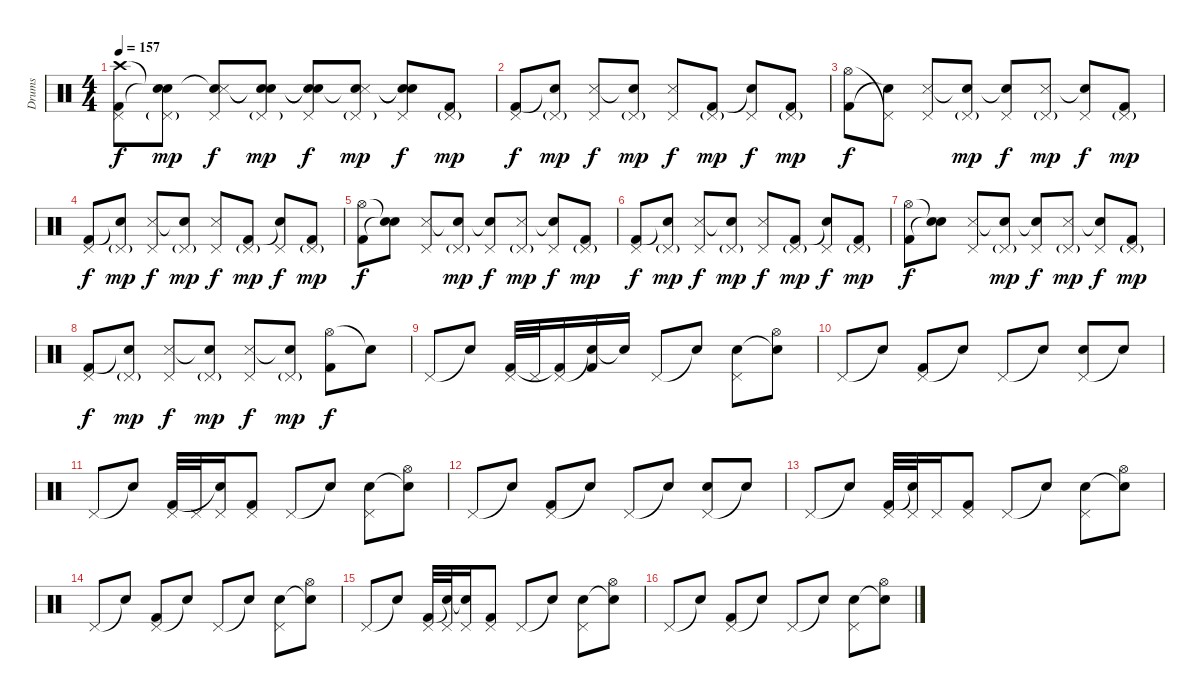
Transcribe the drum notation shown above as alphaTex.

\track ("Drums" "Drums") {instrument percussion}
\staff {score}
\articulation defaults
\ts (4 4)
\tempo 157
\clef neutral
\ks c
("Crash high (hit)" "Pedal Hi-Hat (hit)" "Kick (hit) 2").8{dy f} ("Snare (hit)"{t} "Pedal Hi-Hat (hit)"{g} "Snare (hit)"{t}).8{dy mp} ("Snare (hit)"{t} "Pedal Hi-Hat (hit)" "Snare (side stick) 3").8{dy f} ("Snare (hit)"{t} "Pedal Hi-Hat (hit)"{g} "Snare (hit)"{t}).8{dy mp} ("Snare (hit)"{t} "Pedal Hi-Hat (hit)" "Snare (hit)"{t}).8{dy f} ("Snare (hit)"{t} "Pedal Hi-Hat (hit)"{g} "Snare (side stick) 3").8{dy mp} ("Snare (hit)"{t} "Pedal Hi-Hat (hit)" "Snare (hit)"{t}).8{dy f} ("Pedal Hi-Hat (hit)"{g} "Kick (hit) 2").8{dy mp} |
("Pedal Hi-Hat (hit)" "Kick (hit) 2").8{dy f} ("Pedal Hi-Hat (hit)"{g} "Snare (hit)"{t}).8{dy mp} ("Pedal Hi-Hat (hit)" "Snare (side stick) 3").8{dy f} ("Pedal Hi-Hat (hit)"{g} "Snare (hit)"{t}).8{dy mp} ("Pedal Hi-Hat (hit)" "Snare (side stick) 3").8{dy f} ("Pedal Hi-Hat (hit)"{g} "Kick (hit) 2").8{dy mp} ("Pedal Hi-Hat (hit)" "Snare (hit)"{t}).8{dy f} ("Pedal Hi-Hat (hit)"{g} "Kick (hit) 2").8{dy mp} |
("Hi-Hat (open)" "Kick (hit) 2").8{dy f} ("Pedal Hi-Hat (hit)"{t} "Snare (hit)"{t}).8 ("Pedal Hi-Hat (hit)" "Snare (side stick) 3").8 ("Pedal Hi-Hat (hit)"{g} "Snare (hit)"{t}).8{dy mp} ("Pedal Hi-Hat (hit)" "Snare (hit)"{t}).8{dy f} ("Pedal Hi-Hat (hit)"{g} "Snare (side stick) 3").8{dy mp} ("Pedal Hi-Hat (hit)" "Snare (hit)"{t}).8{dy f} ("Pedal Hi-Hat (hit)"{g} "Kick (hit) 2").8{dy mp} |
("Pedal Hi-Hat (hit)" "Kick (hit) 2").8{dy f} ("Pedal Hi-Hat (hit)"{g} "Snare (hit)"{t}).8{dy mp} ("Pedal Hi-Hat (hit)" "Snare (side stick) 3").8{dy f} ("Pedal Hi-Hat (hit)"{g} "Snare (hit)"{t}).8{dy mp} ("Pedal Hi-Hat (hit)" "Snare (side stick) 3").8{dy f} ("Pedal Hi-Hat (hit)"{g} "Kick (hit) 2").8{dy mp} ("Pedal Hi-Hat (hit)" "Snare (hit)"{t}).8{dy f} ("Pedal Hi-Hat (hit)"{g} "Kick (hit) 2").8{dy mp} |
("Hi-Hat (open)" "Kick (hit) 2").8{dy f} ("Snare (hit)"{t} "Snare (hit)"{t}).8 ("Pedal Hi-Hat (hit)" "Snare (side stick) 3").8 ("Pedal Hi-Hat (hit)"{g} "Snare (hit)"{t}).8{dy mp} ("Pedal Hi-Hat (hit)" "Snare (hit)"{t}).8{dy f} ("Pedal Hi-Hat (hit)"{g} "Snare (side stick) 3").8{dy mp} ("Pedal Hi-Hat (hit)" "Snare (hit)"{t}).8{dy f} ("Pedal Hi-Hat (hit)"{g} "Kick (hit) 2").8{dy mp} |
("Pedal Hi-Hat (hit)" "Kick (hit) 2").8{dy f} ("Pedal Hi-Hat (hit)"{g} "Snare (hit)"{t}).8{dy mp} ("Pedal Hi-Hat (hit)" "Snare (side stick) 3").8{dy f} ("Pedal Hi-Hat (hit)"{g} "Snare (hit)"{t}).8{dy mp} ("Pedal Hi-Hat (hit)" "Snare (side stick) 3").8{dy f} ("Pedal Hi-Hat (hit)"{g} "Kick (hit) 2").8{dy mp} ("Pedal Hi-Hat (hit)" "Snare (hit)"{t}).8{dy f} ("Pedal Hi-Hat (hit)"{g} "Kick (hit) 2").8{dy mp} |
("Hi-Hat (open)" "Kick (hit) 2").8{dy f} ("Snare (hit)"{t} "Snare (hit)"{t}).8 ("Pedal Hi-Hat (hit)" "Snare (side stick) 3").8 ("Pedal Hi-Hat (hit)"{g} "Snare (hit)"{t}).8{dy mp} ("Pedal Hi-Hat (hit)" "Snare (hit)"{t}).8{dy f} ("Pedal Hi-Hat (hit)"{g} "Snare (side stick) 3").8{dy mp} ("Pedal Hi-Hat (hit)" "Snare (hit)"{t}).8{dy f} ("Pedal Hi-Hat (hit)"{g} "Kick (hit) 2").8{dy mp} |
("Pedal Hi-Hat (hit)" "Kick (hit) 2").8{dy f} ("Pedal Hi-Hat (hit)"{g} "Snare (hit)"{t}).8{dy mp} ("Pedal Hi-Hat (hit)" "Snare (side stick) 3").8{dy f} ("Pedal Hi-Hat (hit)"{g} "Snare (hit)"{t}).8{dy mp} ("Pedal Hi-Hat (hit)" "Snare (side stick) 3").8{dy f} ("Pedal Hi-Hat (hit)"{g} "Snare (hit)"{t}).8{dy mp} ("Hi-Hat (open)" "Kick (hit) 2").8{dy f} "Snare (hit)"{t}.8 |
"Pedal Hi-Hat (hit)".8 "Snare (hit)"{t}.8 ("Pedal Hi-Hat (hit)" "Kick (hit) 2").32 "Pedal Hi-Hat (hit)".32 ("Pedal Hi-Hat (hit)" "Kick (hit) 2"{t}).16 ("Snare (hit)"{t} "Kick (hit) 2").16 "Snare (hit)"{t}.16 "Pedal Hi-Hat (hit)".8 "Snare (hit)"{t}.8 ("Pedal Hi-Hat (hit)" "Snare (hit) 2").8 ("Hi-Hat (open)" "Snare (hit)"{t}).8 |
"Pedal Hi-Hat (hit)".8 "Snare (hit)"{t}.8 ("Pedal Hi-Hat (hit)" "Kick (hit) 2").8 "Snare (hit)"{t}.8 "Pedal Hi-Hat (hit)".8 "Snare (hit)"{t}.8 ("Pedal Hi-Hat (hit)" "Snare (hit) 2").8 "Snare (hit)"{t}.8 |
"Pedal Hi-Hat (hit)".8 "Snare (hit)"{t}.8 ("Pedal Hi-Hat (hit)" "Kick (hit) 2").32 "Pedal Hi-Hat (hit)".32 ("Pedal Hi-Hat (hit)" "Snare (hit)"{t}).16 ("Pedal Hi-Hat (hit)" "Kick (hit) 2").8 "Pedal Hi-Hat (hit)".8 "Snare (hit)"{t}.8 ("Pedal Hi-Hat (hit)" "Snare (hit) 2").8 ("Hi-Hat (open)" "Snare (hit)"{t}).8 |
"Pedal Hi-Hat (hit)".8 "Snare (hit)"{t}.8 ("Pedal Hi-Hat (hit)" "Kick (hit) 2").8 "Snare (hit)"{t}.8 "Pedal Hi-Hat (hit)".8 "Snare (hit)"{t}.8 ("Pedal Hi-Hat (hit)" "Snare (hit) 2").8 "Snare (hit)"{t}.8 |
"Pedal Hi-Hat (hit)".8 "Snare (hit)"{t}.8 ("Pedal Hi-Hat (hit)" "Kick (hit) 2").32 ("Pedal Hi-Hat (hit)" "Snare (hit)"{t}).32 "Pedal Hi-Hat (hit)".16 ("Pedal Hi-Hat (hit)" "Kick (hit) 2").8 "Pedal Hi-Hat (hit)".8 "Snare (hit)"{t}.8 ("Pedal Hi-Hat (hit)" "Snare (hit) 2").8 ("Hi-Hat (open)" "Snare (hit)"{t}).8 |
"Pedal Hi-Hat (hit)".8 "Snare (hit)"{t}.8 ("Pedal Hi-Hat (hit)" "Kick (hit) 2").8 "Snare (hit)"{t}.8 "Pedal Hi-Hat (hit)".8 "Snare (hit)"{t}.8 ("Pedal Hi-Hat (hit)" "Snare (hit) 2").8 ("Hi-Hat (open)" "Snare (hit)"{t}).8 |
"Pedal Hi-Hat (hit)".8 "Snare (hit)"{t}.8 ("Pedal Hi-Hat (hit)" "Kick (hit) 2").32 ("Pedal Hi-Hat (hit)" "Snare (hit)"{t}).32 ("Pedal Hi-Hat (hit)" "Snare (hit)"{t}).16 ("Pedal Hi-Hat (hit)" "Kick (hit) 2").8 "Pedal Hi-Hat (hit)".8 "Snare (hit)"{t}.8 ("Pedal Hi-Hat (hit)" "Snare (hit) 2").8 ("Hi-Hat (open)" "Snare (hit)"{t}).8 |
"Pedal Hi-Hat (hit)".8 "Snare (hit)"{t}.8 ("Pedal Hi-Hat (hit)" "Kick (hit) 2").8 "Snare (hit)"{t}.8 "Pedal Hi-Hat (hit)".8 "Snare (hit)"{t}.8 ("Pedal Hi-Hat (hit)" "Snare (hit) 2").8 ("Hi-Hat (open)" "Snare (hit)"{t}).8
